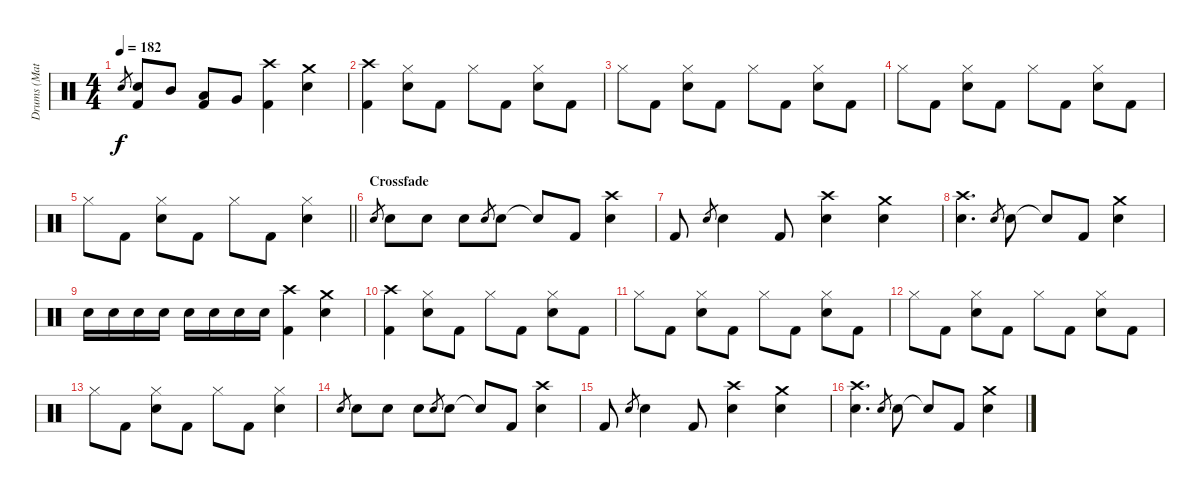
\track ("Drums (Matt)" "Drums (Mat") {instrument percussion}
\staff {score}
\articulation defaults
\ts (4 4)
\tempo 182
\clef neutral
\ks c "Snare (hit) 2".8{gr dy f}
("Snare (hit) 2" "Kick (hit) 2").8 "Mid Tom (hit)".8 ("Low Tom (hit)" "Kick (hit) 2").8 "Very Low Tom (hit)".8 ("Crash high (hit)" "Kick (hit) 2").4 ("Crash medium (hit)" "Snare (hit) 2").4 |
("Crash high (hit)" "Kick (hit) 2").4 ("Hi-Hat (closed)" "Snare (hit) 2").8 "Kick (hit) 2".8 "Hi-Hat (closed)".8 "Kick (hit) 2".8 ("Hi-Hat (closed)" "Snare (hit) 2").8 "Kick (hit) 2".8 |
"Hi-Hat (closed)".8 "Kick (hit) 2".8 ("Hi-Hat (closed)" "Snare (hit) 2").8 "Kick (hit) 2".8 "Hi-Hat (closed)".8 "Kick (hit) 2".8 ("Hi-Hat (closed)" "Snare (hit) 2").8 "Kick (hit) 2".8 |
"Hi-Hat (closed)".8 "Kick (hit) 2".8 ("Hi-Hat (closed)" "Snare (hit) 2").8 "Kick (hit) 2".8 "Hi-Hat (closed)".8 "Kick (hit) 2".8 ("Hi-Hat (closed)" "Snare (hit) 2").8 "Kick (hit) 2".8 |
\barLineRight lightlight "Hi-Hat (closed)".8 "Kick (hit) 2".8
("Hi-Hat (closed)" "Snare (hit) 2").8 "Kick (hit) 2".8 "Hi-Hat (closed)".8 "Kick (hit) 2".8 ("Hi-Hat (closed)" "Snare (hit) 2").4 |
\section ("" "Crossfade")
"Snare (hit) 2".8{gr} "Snare (hit) 2".8{volume 11} "Snare (hit) 2".8 "Snare (hit) 2".8 "Snare (hit) 2".8{gr} "Snare (hit) 2".8 "Snare (hit)"{t}.8 "Kick (hit) 2".8 ("Crash high (hit)" "Snare (hit) 2").4 |
"Kick (hit) 2".8 "Snare (hit) 2".8{gr} "Snare (hit) 2".4 "Kick (hit) 2".8 ("Crash high (hit)" "Snare (hit) 2").4 ("Crash medium (hit)" "Snare (hit) 2").4 |
("Crash high (hit)" "Snare (hit) 2").4{d} "Snare (hit) 2".8{gr} "Snare (hit) 2".8 "Snare (hit)"{t}.8 "Kick (hit) 2".8 ("Crash medium (hit)" "Snare (hit) 2").4 |
"Snare (hit) 2".16 "Snare (hit) 2".16 "Snare (hit) 2".16 "Snare (hit) 2".16 "Snare (hit) 2".16 "Snare (hit) 2".16 "Snare (hit) 2".16 "Snare (hit) 2".16 ("Crash high (hit)" "Kick (hit) 2").4 ("Crash medium (hit)" "Snare (hit) 2").4 |
("Crash high (hit)" "Kick (hit) 2").4{volume 7} ("Hi-Hat (closed)" "Snare (hit) 2").8 "Kick (hit) 2".8 "Hi-Hat (closed)".8 "Kick (hit) 2".8 ("Hi-Hat (closed)" "Snare (hit) 2").8 "Kick (hit) 2".8 |
"Hi-Hat (closed)".8 "Kick (hit) 2".8 ("Hi-Hat (closed)" "Snare (hit) 2").8 "Kick (hit) 2".8 "Hi-Hat (closed)".8 "Kick (hit) 2".8 ("Hi-Hat (closed)" "Snare (hit) 2").8 "Kick (hit) 2".8 |
"Hi-Hat (closed)".8 "Kick (hit) 2".8 ("Hi-Hat (closed)" "Snare (hit) 2").8 "Kick (hit) 2".8 "Hi-Hat (closed)".8 "Kick (hit) 2".8 ("Hi-Hat (closed)" "Snare (hit) 2").8 "Kick (hit) 2".8 |
"Hi-Hat (closed)".8 "Kick (hit) 2".8 ("Hi-Hat (closed)" "Snare (hit) 2").8 "Kick (hit) 2".8 "Hi-Hat (closed)".8 "Kick (hit) 2".8 ("Hi-Hat (closed)" "Snare (hit) 2").4 |
"Snare (hit) 2".8{gr} "Snare (hit) 2".8{volume 5} "Snare (hit) 2".8 "Snare (hit) 2".8 "Snare (hit) 2".8{gr} "Snare (hit) 2".8 "Snare (hit)"{t}.8 "Kick (hit) 2".8 ("Crash high (hit)" "Snare (hit) 2").4 |
"Kick (hit) 2".8 "Snare (hit) 2".8{gr} "Snare (hit) 2".4 "Kick (hit) 2".8 ("Crash high (hit)" "Snare (hit) 2").4 ("Crash medium (hit)" "Snare (hit) 2").4 |
("Crash high (hit)" "Snare (hit) 2").4{d} "Snare (hit) 2".8{gr} "Snare (hit) 2".8 "Snare (hit)"{t}.8 "Kick (hit) 2".8 ("Crash medium (hit)" "Snare (hit) 2").4
